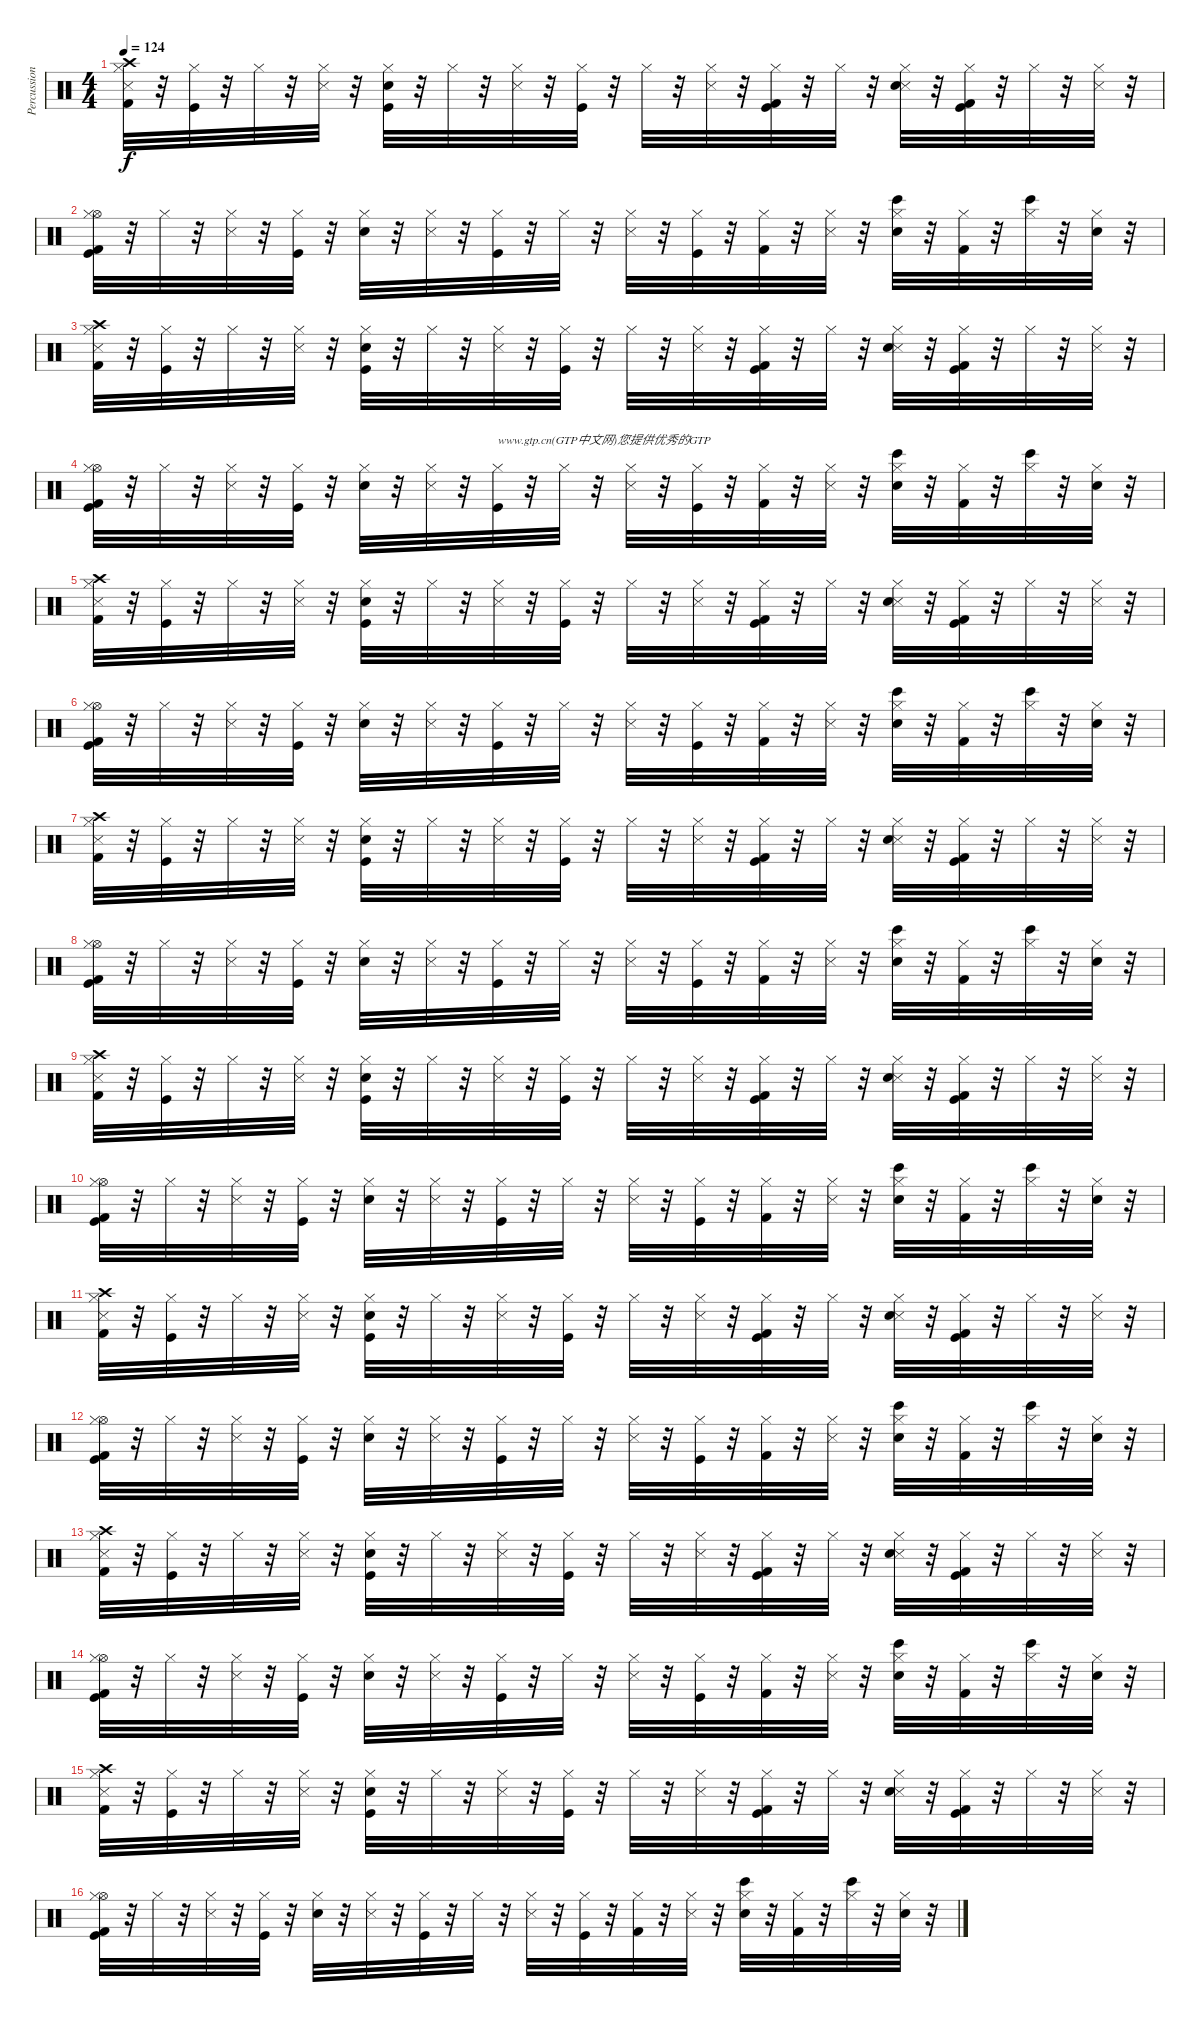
\track ("Percussions" "Percussion") {instrument percussion}
\staff {score}
\articulation defaults
\ts (4 4)
\tempo 124
\clef neutral
\ks c
("Metronome (hit)" "Crash high (hit)" "Kick (hit) 2" "Hi-Hat (closed)").32{dy f} r.32 ("Kick (hit)" "Hi-Hat (closed)").32 r.32 "Hi-Hat (closed)".32 r.32 ("Metronome (hit)" "Hi-Hat (closed)").32 r.32 ("Kick (hit)" "Hi-Hat (closed)" "Electric Snare (hit)").32 r.32 "Hi-Hat (closed)".32 r.32 ("Metronome (hit)" "Hi-Hat (closed)").32 r.32 ("Kick (hit)" "Hi-Hat (closed)").32 r.32 "Hi-Hat (closed)".32 r.32 ("Metronome (hit)" "Hi-Hat (closed)").32 r.32 ("Kick (hit)" "Hi-Hat (closed)" "Kick (hit) 2").32 r.32 "Hi-Hat (closed)".32 r.32 ("Metronome (hit)" "Hi-Hat (closed)" "Electric Snare (hit)").32 r.32 ("Kick (hit)" "Kick (hit) 2" "Hi-Hat (closed)").32 r.32 "Hi-Hat (closed)".32 r.32 ("Metronome (hit)" "Hi-Hat (closed)").32 r.32 |
("Kick (hit)" "Hi-Hat (open)" "Kick (hit) 2" "Hi-Hat (closed)").32 r.32 "Hi-Hat (closed)".32 r.32 ("Metronome (hit)" "Hi-Hat (closed)").32 r.32 ("Kick (hit)" "Hi-Hat (closed)").32 r.32 ("Electric Snare (hit)" "Hi-Hat (closed)").32 r.32 ("Metronome (hit)" "Hi-Hat (closed)").32 r.32 ("Kick (hit)" "Hi-Hat (closed)").32 r.32 "Hi-Hat (closed)".32 r.32 ("Metronome (hit)" "Hi-Hat (closed)").32 r.32 ("Kick (hit)" "Hi-Hat (closed)").32 r.32 ("Hi-Hat (closed)" "Kick (hit) 2").32 r.32 ("Metronome (hit)" "Hi-Hat (closed)").32 r.32 ("Bongo High (hit)" "Electric Snare (hit)" "Hi-Hat (closed)").32 r.32 ("Kick (hit) 2" "Hi-Hat (closed)").32 r.32 ("Bongo High (hit)" "Hi-Hat (closed)").32 r.32 ("Hi-Hat (closed)" "Electric Snare (hit)").32 r.32 |
("Metronome (hit)" "Crash high (hit)" "Kick (hit) 2" "Hi-Hat (closed)").32 r.32 ("Kick (hit)" "Hi-Hat (closed)").32 r.32 "Hi-Hat (closed)".32 r.32 ("Metronome (hit)" "Hi-Hat (closed)").32 r.32 ("Kick (hit)" "Hi-Hat (closed)" "Electric Snare (hit)").32 r.32 "Hi-Hat (closed)".32 r.32 ("Metronome (hit)" "Hi-Hat (closed)").32 r.32 ("Kick (hit)" "Hi-Hat (closed)").32 r.32 "Hi-Hat (closed)".32 r.32 ("Metronome (hit)" "Hi-Hat (closed)").32 r.32 ("Kick (hit)" "Hi-Hat (closed)" "Kick (hit) 2").32 r.32 "Hi-Hat (closed)".32 r.32 ("Metronome (hit)" "Hi-Hat (closed)" "Electric Snare (hit)").32 r.32 ("Kick (hit)" "Kick (hit) 2" "Hi-Hat (closed)").32 r.32 "Hi-Hat (closed)".32 r.32 ("Metronome (hit)" "Hi-Hat (closed)").32 r.32 |
("Kick (hit)" "Hi-Hat (open)" "Kick (hit) 2" "Hi-Hat (closed)").32 r.32 "Hi-Hat (closed)".32 r.32 ("Metronome (hit)" "Hi-Hat (closed)").32 r.32 ("Kick (hit)" "Hi-Hat (closed)").32 r.32 ("Electric Snare (hit)" "Hi-Hat (closed)").32 r.32 ("Metronome (hit)" "Hi-Hat (closed)").32 r.32 ("Kick (hit)" "Hi-Hat (closed)").32{txt "www.gtp.cn(GTP中文网)您提供优秀的GTP"} r.32 "Hi-Hat (closed)".32 r.32 ("Metronome (hit)" "Hi-Hat (closed)").32 r.32 ("Kick (hit)" "Hi-Hat (closed)").32 r.32 ("Hi-Hat (closed)" "Kick (hit) 2").32 r.32 ("Metronome (hit)" "Hi-Hat (closed)").32 r.32 ("Bongo High (hit)" "Electric Snare (hit)" "Hi-Hat (closed)").32 r.32 ("Kick (hit) 2" "Hi-Hat (closed)").32 r.32 ("Bongo High (hit)" "Hi-Hat (closed)").32 r.32 ("Hi-Hat (closed)" "Electric Snare (hit)").32 r.32 |
("Metronome (hit)" "Crash high (hit)" "Kick (hit) 2" "Hi-Hat (closed)").32 r.32 ("Kick (hit)" "Hi-Hat (closed)").32 r.32 "Hi-Hat (closed)".32 r.32 ("Metronome (hit)" "Hi-Hat (closed)").32 r.32 ("Kick (hit)" "Hi-Hat (closed)" "Electric Snare (hit)").32 r.32 "Hi-Hat (closed)".32 r.32 ("Metronome (hit)" "Hi-Hat (closed)").32 r.32 ("Kick (hit)" "Hi-Hat (closed)").32 r.32 "Hi-Hat (closed)".32 r.32 ("Metronome (hit)" "Hi-Hat (closed)").32 r.32 ("Kick (hit)" "Hi-Hat (closed)" "Kick (hit) 2").32 r.32 "Hi-Hat (closed)".32 r.32 ("Metronome (hit)" "Hi-Hat (closed)" "Electric Snare (hit)").32 r.32 ("Kick (hit)" "Kick (hit) 2" "Hi-Hat (closed)").32 r.32 "Hi-Hat (closed)".32 r.32 ("Metronome (hit)" "Hi-Hat (closed)").32 r.32 |
("Kick (hit)" "Hi-Hat (open)" "Kick (hit) 2" "Hi-Hat (closed)").32 r.32 "Hi-Hat (closed)".32 r.32 ("Metronome (hit)" "Hi-Hat (closed)").32 r.32 ("Kick (hit)" "Hi-Hat (closed)").32 r.32 ("Electric Snare (hit)" "Hi-Hat (closed)").32 r.32 ("Metronome (hit)" "Hi-Hat (closed)").32 r.32 ("Kick (hit)" "Hi-Hat (closed)").32 r.32 "Hi-Hat (closed)".32 r.32 ("Metronome (hit)" "Hi-Hat (closed)").32 r.32 ("Kick (hit)" "Hi-Hat (closed)").32 r.32 ("Hi-Hat (closed)" "Kick (hit) 2").32 r.32 ("Metronome (hit)" "Hi-Hat (closed)").32 r.32 ("Bongo High (hit)" "Electric Snare (hit)" "Hi-Hat (closed)").32 r.32 ("Kick (hit) 2" "Hi-Hat (closed)").32 r.32 ("Bongo High (hit)" "Hi-Hat (closed)").32 r.32 ("Hi-Hat (closed)" "Electric Snare (hit)").32 r.32 |
("Metronome (hit)" "Crash high (hit)" "Kick (hit) 2" "Hi-Hat (closed)").32 r.32 ("Kick (hit)" "Hi-Hat (closed)").32 r.32 "Hi-Hat (closed)".32 r.32 ("Metronome (hit)" "Hi-Hat (closed)").32 r.32 ("Kick (hit)" "Hi-Hat (closed)" "Electric Snare (hit)").32 r.32 "Hi-Hat (closed)".32 r.32 ("Metronome (hit)" "Hi-Hat (closed)").32 r.32 ("Kick (hit)" "Hi-Hat (closed)").32 r.32 "Hi-Hat (closed)".32 r.32 ("Metronome (hit)" "Hi-Hat (closed)").32 r.32 ("Kick (hit)" "Hi-Hat (closed)" "Kick (hit) 2").32 r.32 "Hi-Hat (closed)".32 r.32 ("Metronome (hit)" "Hi-Hat (closed)" "Electric Snare (hit)").32 r.32 ("Kick (hit)" "Kick (hit) 2" "Hi-Hat (closed)").32 r.32 "Hi-Hat (closed)".32 r.32 ("Metronome (hit)" "Hi-Hat (closed)").32 r.32 |
("Kick (hit)" "Hi-Hat (open)" "Kick (hit) 2" "Hi-Hat (closed)").32 r.32 "Hi-Hat (closed)".32 r.32 ("Metronome (hit)" "Hi-Hat (closed)").32 r.32 ("Kick (hit)" "Hi-Hat (closed)").32 r.32 ("Electric Snare (hit)" "Hi-Hat (closed)").32 r.32 ("Metronome (hit)" "Hi-Hat (closed)").32 r.32 ("Kick (hit)" "Hi-Hat (closed)").32 r.32 "Hi-Hat (closed)".32 r.32 ("Metronome (hit)" "Hi-Hat (closed)").32 r.32 ("Kick (hit)" "Hi-Hat (closed)").32 r.32 ("Hi-Hat (closed)" "Kick (hit) 2").32 r.32 ("Metronome (hit)" "Hi-Hat (closed)").32 r.32 ("Bongo High (hit)" "Electric Snare (hit)" "Hi-Hat (closed)").32 r.32 ("Kick (hit) 2" "Hi-Hat (closed)").32 r.32 ("Bongo High (hit)" "Hi-Hat (closed)").32 r.32 ("Hi-Hat (closed)" "Electric Snare (hit)").32 r.32 |
("Metronome (hit)" "Crash high (hit)" "Kick (hit) 2" "Hi-Hat (closed)").32 r.32 ("Kick (hit)" "Hi-Hat (closed)").32 r.32 "Hi-Hat (closed)".32 r.32 ("Metronome (hit)" "Hi-Hat (closed)").32 r.32 ("Kick (hit)" "Hi-Hat (closed)" "Electric Snare (hit)").32 r.32 "Hi-Hat (closed)".32 r.32 ("Metronome (hit)" "Hi-Hat (closed)").32 r.32 ("Kick (hit)" "Hi-Hat (closed)").32 r.32 "Hi-Hat (closed)".32 r.32 ("Metronome (hit)" "Hi-Hat (closed)").32 r.32 ("Kick (hit)" "Hi-Hat (closed)" "Kick (hit) 2").32 r.32 "Hi-Hat (closed)".32 r.32 ("Metronome (hit)" "Hi-Hat (closed)" "Electric Snare (hit)").32 r.32 ("Kick (hit)" "Kick (hit) 2" "Hi-Hat (closed)").32 r.32 "Hi-Hat (closed)".32 r.32 ("Metronome (hit)" "Hi-Hat (closed)").32 r.32 |
("Kick (hit)" "Hi-Hat (open)" "Kick (hit) 2" "Hi-Hat (closed)").32 r.32 "Hi-Hat (closed)".32 r.32 ("Metronome (hit)" "Hi-Hat (closed)").32 r.32 ("Kick (hit)" "Hi-Hat (closed)").32 r.32 ("Electric Snare (hit)" "Hi-Hat (closed)").32 r.32 ("Metronome (hit)" "Hi-Hat (closed)").32 r.32 ("Kick (hit)" "Hi-Hat (closed)").32 r.32 "Hi-Hat (closed)".32 r.32 ("Metronome (hit)" "Hi-Hat (closed)").32 r.32 ("Kick (hit)" "Hi-Hat (closed)").32 r.32 ("Hi-Hat (closed)" "Kick (hit) 2").32 r.32 ("Metronome (hit)" "Hi-Hat (closed)").32 r.32 ("Bongo High (hit)" "Electric Snare (hit)" "Hi-Hat (closed)").32 r.32 ("Kick (hit) 2" "Hi-Hat (closed)").32 r.32 ("Bongo High (hit)" "Hi-Hat (closed)").32 r.32 ("Hi-Hat (closed)" "Electric Snare (hit)").32 r.32 |
("Metronome (hit)" "Crash high (hit)" "Kick (hit) 2" "Hi-Hat (closed)").32 r.32 ("Kick (hit)" "Hi-Hat (closed)").32 r.32 "Hi-Hat (closed)".32 r.32 ("Metronome (hit)" "Hi-Hat (closed)").32 r.32 ("Kick (hit)" "Hi-Hat (closed)" "Electric Snare (hit)").32 r.32 "Hi-Hat (closed)".32 r.32 ("Metronome (hit)" "Hi-Hat (closed)").32 r.32 ("Kick (hit)" "Hi-Hat (closed)").32 r.32 "Hi-Hat (closed)".32 r.32 ("Metronome (hit)" "Hi-Hat (closed)").32 r.32 ("Kick (hit)" "Hi-Hat (closed)" "Kick (hit) 2").32 r.32 "Hi-Hat (closed)".32 r.32 ("Metronome (hit)" "Hi-Hat (closed)" "Electric Snare (hit)").32 r.32 ("Kick (hit)" "Kick (hit) 2" "Hi-Hat (closed)").32 r.32 "Hi-Hat (closed)".32 r.32 ("Metronome (hit)" "Hi-Hat (closed)").32 r.32 |
("Kick (hit)" "Hi-Hat (open)" "Kick (hit) 2" "Hi-Hat (closed)").32 r.32 "Hi-Hat (closed)".32 r.32 ("Metronome (hit)" "Hi-Hat (closed)").32 r.32 ("Kick (hit)" "Hi-Hat (closed)").32 r.32 ("Electric Snare (hit)" "Hi-Hat (closed)").32 r.32 ("Metronome (hit)" "Hi-Hat (closed)").32 r.32 ("Kick (hit)" "Hi-Hat (closed)").32 r.32 "Hi-Hat (closed)".32 r.32 ("Metronome (hit)" "Hi-Hat (closed)").32 r.32 ("Kick (hit)" "Hi-Hat (closed)").32 r.32 ("Hi-Hat (closed)" "Kick (hit) 2").32 r.32 ("Metronome (hit)" "Hi-Hat (closed)").32 r.32 ("Bongo High (hit)" "Electric Snare (hit)" "Hi-Hat (closed)").32 r.32 ("Kick (hit) 2" "Hi-Hat (closed)").32 r.32 ("Bongo High (hit)" "Hi-Hat (closed)").32 r.32 ("Hi-Hat (closed)" "Electric Snare (hit)").32 r.32 |
("Metronome (hit)" "Crash high (hit)" "Kick (hit) 2" "Hi-Hat (closed)").32 r.32 ("Kick (hit)" "Hi-Hat (closed)").32 r.32 "Hi-Hat (closed)".32 r.32 ("Metronome (hit)" "Hi-Hat (closed)").32 r.32 ("Kick (hit)" "Hi-Hat (closed)" "Electric Snare (hit)").32 r.32 "Hi-Hat (closed)".32 r.32 ("Metronome (hit)" "Hi-Hat (closed)").32 r.32 ("Kick (hit)" "Hi-Hat (closed)").32 r.32 "Hi-Hat (closed)".32 r.32 ("Metronome (hit)" "Hi-Hat (closed)").32 r.32 ("Kick (hit)" "Hi-Hat (closed)" "Kick (hit) 2").32 r.32 "Hi-Hat (closed)".32 r.32 ("Metronome (hit)" "Hi-Hat (closed)" "Electric Snare (hit)").32 r.32 ("Kick (hit)" "Kick (hit) 2" "Hi-Hat (closed)").32 r.32 "Hi-Hat (closed)".32 r.32 ("Metronome (hit)" "Hi-Hat (closed)").32 r.32 |
("Kick (hit)" "Hi-Hat (open)" "Kick (hit) 2" "Hi-Hat (closed)").32 r.32 "Hi-Hat (closed)".32 r.32 ("Metronome (hit)" "Hi-Hat (closed)").32 r.32 ("Kick (hit)" "Hi-Hat (closed)").32 r.32 ("Electric Snare (hit)" "Hi-Hat (closed)").32 r.32 ("Metronome (hit)" "Hi-Hat (closed)").32 r.32 ("Kick (hit)" "Hi-Hat (closed)").32 r.32 "Hi-Hat (closed)".32 r.32 ("Metronome (hit)" "Hi-Hat (closed)").32 r.32 ("Kick (hit)" "Hi-Hat (closed)").32 r.32 ("Hi-Hat (closed)" "Kick (hit) 2").32 r.32 ("Metronome (hit)" "Hi-Hat (closed)").32 r.32 ("Bongo High (hit)" "Electric Snare (hit)" "Hi-Hat (closed)").32 r.32 ("Kick (hit) 2" "Hi-Hat (closed)").32 r.32 ("Bongo High (hit)" "Hi-Hat (closed)").32 r.32 ("Hi-Hat (closed)" "Electric Snare (hit)").32 r.32 |
("Metronome (hit)" "Crash high (hit)" "Kick (hit) 2" "Hi-Hat (closed)").32 r.32 ("Kick (hit)" "Hi-Hat (closed)").32 r.32 "Hi-Hat (closed)".32 r.32 ("Metronome (hit)" "Hi-Hat (closed)").32 r.32 ("Kick (hit)" "Hi-Hat (closed)" "Electric Snare (hit)").32 r.32 "Hi-Hat (closed)".32 r.32 ("Metronome (hit)" "Hi-Hat (closed)").32 r.32 ("Kick (hit)" "Hi-Hat (closed)").32 r.32 "Hi-Hat (closed)".32 r.32 ("Metronome (hit)" "Hi-Hat (closed)").32 r.32 ("Kick (hit)" "Hi-Hat (closed)" "Kick (hit) 2").32 r.32 "Hi-Hat (closed)".32 r.32 ("Metronome (hit)" "Hi-Hat (closed)" "Electric Snare (hit)").32 r.32 ("Kick (hit)" "Kick (hit) 2" "Hi-Hat (closed)").32 r.32 "Hi-Hat (closed)".32 r.32 ("Metronome (hit)" "Hi-Hat (closed)").32 r.32 |
("Kick (hit)" "Hi-Hat (open)" "Kick (hit) 2" "Hi-Hat (closed)").32 r.32 "Hi-Hat (closed)".32 r.32 ("Metronome (hit)" "Hi-Hat (closed)").32 r.32 ("Kick (hit)" "Hi-Hat (closed)").32 r.32 ("Electric Snare (hit)" "Hi-Hat (closed)").32 r.32 ("Metronome (hit)" "Hi-Hat (closed)").32 r.32 ("Kick (hit)" "Hi-Hat (closed)").32 r.32 "Hi-Hat (closed)".32 r.32 ("Metronome (hit)" "Hi-Hat (closed)").32 r.32 ("Kick (hit)" "Hi-Hat (closed)").32 r.32 ("Hi-Hat (closed)" "Kick (hit) 2").32 r.32 ("Metronome (hit)" "Hi-Hat (closed)").32 r.32 ("Bongo High (hit)" "Electric Snare (hit)" "Hi-Hat (closed)").32 r.32 ("Kick (hit) 2" "Hi-Hat (closed)").32 r.32 ("Bongo High (hit)" "Hi-Hat (closed)").32 r.32 ("Hi-Hat (closed)" "Electric Snare (hit)").32 r.32
